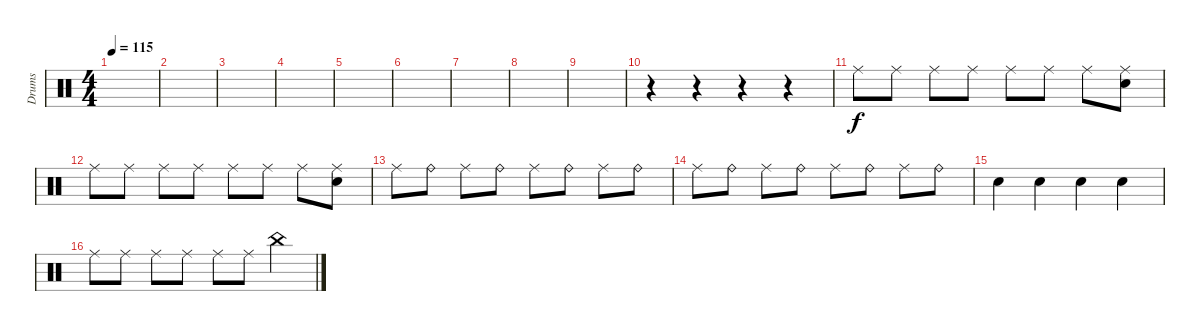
\track ("Drums" "Drums") {instrument percussion}
\staff {score}
\articulation defaults
\ts (4 4)
\tempo 115
\clef neutral
\ks c
|
|
|
|
|
|
|
|
|
r.4 r.4 r.4 r.4 |
"Ride (middle)".8 "Ride (middle)".8 "Ride (middle)".8 "Ride (middle)".8 "Ride (middle)".8 "Ride (middle)".8 "Ride (middle)".8 ("Ride (middle)" "Electric Snare (hit)").8 |
"Ride (middle)".8 "Ride (middle)".8 "Ride (middle)".8 "Ride (middle)".8 "Ride (middle)".8 "Ride (middle)".8 "Ride (middle)".8 ("Ride (middle)" "Electric Snare (hit)").8 |
"Ride (middle)".8 "Ride (bell)".8 "Ride (middle)".8 "Ride (bell)".8 "Ride (middle)".8 "Ride (bell)".8 "Ride (middle)".8 "Ride (bell)".8 |
"Ride (middle)".8 "Ride (bell)".8 "Ride (middle)".8 "Ride (bell)".8 "Ride (middle)".8 "Ride (bell)".8 "Ride (middle)".8 "Ride (bell)".8 |
"Electric Snare (hit)".4 "Electric Snare (hit)".4 "Electric Snare (hit)".4 "Electric Snare (hit)".4 |
"Ride (middle)".8 "Ride (middle)".8 "Ride (middle)".8 "Ride (middle)".8 "Ride (middle)".8 "Ride (middle)".8 "China (hit)".4
